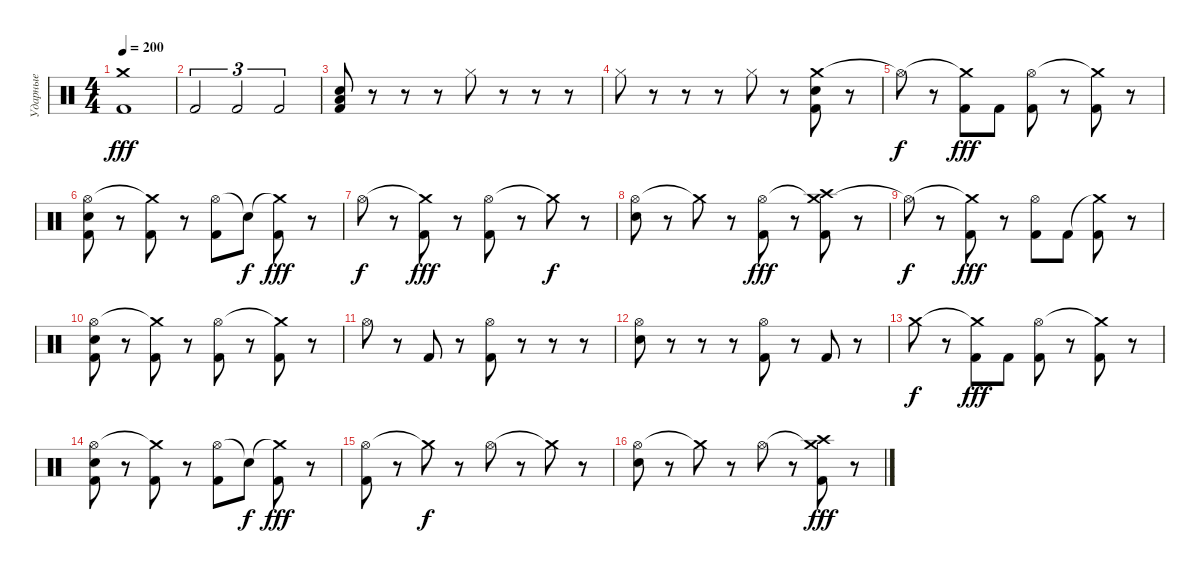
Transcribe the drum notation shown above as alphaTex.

\track ("Ударные" "Ударные") {instrument percussion}
\staff {score}
\articulation defaults
\ts (4 4)
\tempo 200
\clef neutral
\ks c
("Crash medium (hit)" "Kick (hit) 2").1{dy fff} |
"Kick (hit) 2".2{tu (3 2)} "Kick (hit) 2".2{tu (3 2)} "Kick (hit) 2".2{tu (3 2)} |
("Electric Snare (hit)" "Low Floor Tom (hit)" "Kick (hit) 2").8 r.8 r.8 r.8 "Hi-Hat (closed)".8 r.8 r.8 r.8 |
"Hi-Hat (closed)".8 r.8 r.8 r.8 "Hi-Hat (closed)".8 r.8 ("Crash medium (hit)" "Electric Snare (hit)" "Kick (hit) 2").8 r.8 |
"Hi-Hat (open)"{t}.8{dy f} r.8 ("Crash medium (hit)"{t} "Kick (hit) 2").8{dy fff} "Kick (hit) 2".8 ("Hi-Hat (open)" "Kick (hit) 2").8 r.8 ("Crash medium (hit)"{t} "Kick (hit) 2").8 r.8 |
("Hi-Hat (open)" "Electric Snare (hit)" "Kick (hit) 2").8 r.8 ("Crash medium (hit)"{t} "Kick (hit) 2").8 r.8 ("Hi-Hat (open)" "Kick (hit) 2").8 "Snare (hit)"{t}.8{dy f} ("Crash medium (hit)"{t} "Kick (hit) 2").8{dy fff} r.8 |
"Hi-Hat (open)".8{dy f} r.8 ("Crash medium (hit)"{t} "Kick (hit) 2").8{dy fff} r.8 ("Hi-Hat (open)" "Kick (hit) 2").8 r.8 "Crash medium (hit)"{t}.8{dy f} r.8 |
("Hi-Hat (open)" "Electric Snare (hit)").8 r.8 "Crash medium (hit)"{t}.8 r.8 ("Hi-Hat (open)" "Kick (hit) 2").8{dy fff} r.8 ("Crash medium (hit)"{t} "Crash high (hit)" "Kick (hit) 2").8 r.8 |
"Hi-Hat (open)"{t}.8{dy f} r.8 ("Crash medium (hit)"{t} "Kick (hit) 2").8{dy fff} r.8 ("Hi-Hat (open)" "Kick (hit) 2").8 "Kick (hit) 2".8 ("Crash medium (hit)"{t} "Kick (hit) 2").8 r.8 |
("Hi-Hat (open)" "Electric Snare (hit)" "Kick (hit) 2").8 r.8 ("Crash medium (hit)"{t} "Kick (hit) 2").8 r.8 ("Hi-Hat (open)" "Kick (hit) 2").8 r.8 ("Crash medium (hit)"{t} "Kick (hit) 2").8 r.8 |
"Hi-Hat (open)".8 r.8 "Kick (hit) 2".8 r.8 ("Hi-Hat (open)" "Kick (hit) 2").8 r.8 r.8 r.8 |
("Hi-Hat (open)" "Electric Snare (hit)").8 r.8 r.8 r.8 ("Hi-Hat (open)" "Kick (hit) 2").8 r.8 "Kick (hit) 2".8 r.8 |
"Crash medium (hit)".8{dy f} r.8 ("Crash medium (hit)"{t} "Kick (hit) 2").8{dy fff} "Kick (hit) 2".8 ("Hi-Hat (open)" "Kick (hit) 2").8 r.8 ("Crash medium (hit)"{t} "Kick (hit) 2").8 r.8 |
("Hi-Hat (open)" "Electric Snare (hit)" "Kick (hit) 2").8 r.8 ("Crash medium (hit)"{t} "Kick (hit) 2").8 r.8 ("Hi-Hat (open)" "Kick (hit) 2").8 "Snare (hit)"{t}.8{dy f} ("Crash medium (hit)"{t} "Kick (hit) 2").8{dy fff} r.8 |
("Hi-Hat (open)" "Kick (hit) 2").8 r.8 "Crash medium (hit)"{t}.8{dy f} r.8 "Hi-Hat (open)".8 r.8 "Crash medium (hit)"{t}.8 r.8 |
("Hi-Hat (open)" "Electric Snare (hit)").8 r.8 "Crash medium (hit)"{t}.8 r.8 "Hi-Hat (open)".8 r.8 ("Crash medium (hit)"{t} "Crash high (hit)" "Kick (hit) 2").8{dy fff} r.8
